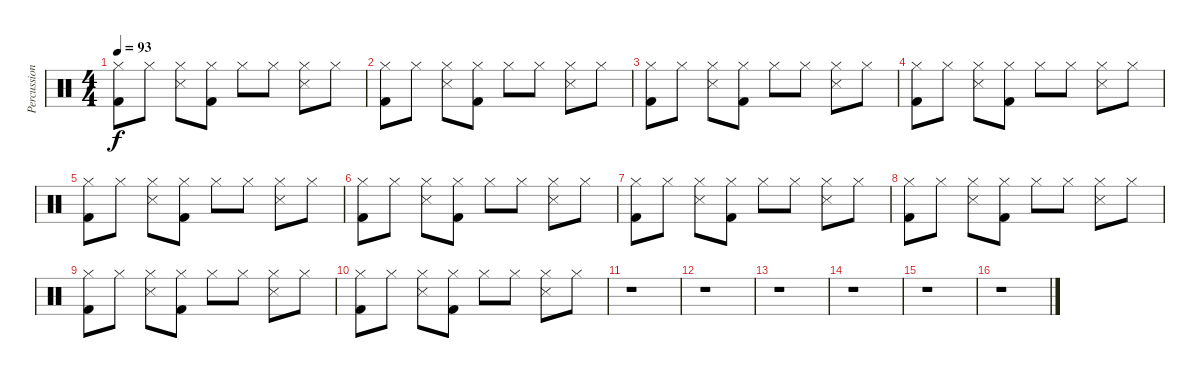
\track ("Percussion" "Percussion") {instrument percussion}
\staff {score}
\articulation defaults
\ts (4 4)
\tempo 93
\clef neutral
\ks c
("Hi-Hat (closed)" "Kick (hit) 2").8{dy f} "Hi-Hat (closed)".8 ("Hi-Hat (closed)" "Snare (side stick) 3").8 ("Hi-Hat (closed)" "Kick (hit) 2").8 "Hi-Hat (closed)".8 "Hi-Hat (closed)".8 ("Hi-Hat (closed)" "Snare (side stick) 3").8 "Hi-Hat (closed)".8 |
("Hi-Hat (closed)" "Kick (hit) 2").8 "Hi-Hat (closed)".8 ("Hi-Hat (closed)" "Snare (side stick) 3").8 ("Hi-Hat (closed)" "Kick (hit) 2").8 "Hi-Hat (closed)".8 "Hi-Hat (closed)".8 ("Hi-Hat (closed)" "Snare (side stick) 3").8 "Hi-Hat (closed)".8 |
("Hi-Hat (closed)" "Kick (hit) 2").8 "Hi-Hat (closed)".8 ("Hi-Hat (closed)" "Snare (side stick) 3").8 ("Hi-Hat (closed)" "Kick (hit) 2").8 "Hi-Hat (closed)".8 "Hi-Hat (closed)".8 ("Hi-Hat (closed)" "Snare (side stick) 3").8 "Hi-Hat (closed)".8 |
("Hi-Hat (closed)" "Kick (hit) 2").8 "Hi-Hat (closed)".8 ("Hi-Hat (closed)" "Snare (side stick) 3").8 ("Hi-Hat (closed)" "Kick (hit) 2").8 "Hi-Hat (closed)".8 "Hi-Hat (closed)".8 ("Hi-Hat (closed)" "Snare (side stick) 3").8 "Hi-Hat (closed)".8 |
("Hi-Hat (closed)" "Kick (hit) 2").8 "Hi-Hat (closed)".8 ("Hi-Hat (closed)" "Snare (side stick) 3").8 ("Hi-Hat (closed)" "Kick (hit) 2").8 "Hi-Hat (closed)".8 "Hi-Hat (closed)".8 ("Hi-Hat (closed)" "Snare (side stick) 3").8 "Hi-Hat (closed)".8 |
("Hi-Hat (closed)" "Kick (hit) 2").8 "Hi-Hat (closed)".8 ("Hi-Hat (closed)" "Snare (side stick) 3").8 ("Hi-Hat (closed)" "Kick (hit) 2").8 "Hi-Hat (closed)".8 "Hi-Hat (closed)".8 ("Hi-Hat (closed)" "Snare (side stick) 3").8 "Hi-Hat (closed)".8 |
("Hi-Hat (closed)" "Kick (hit) 2").8 "Hi-Hat (closed)".8 ("Hi-Hat (closed)" "Snare (side stick) 3").8 ("Hi-Hat (closed)" "Kick (hit) 2").8 "Hi-Hat (closed)".8 "Hi-Hat (closed)".8 ("Hi-Hat (closed)" "Snare (side stick) 3").8 "Hi-Hat (closed)".8 |
("Hi-Hat (closed)" "Kick (hit) 2").8 "Hi-Hat (closed)".8 ("Hi-Hat (closed)" "Snare (side stick) 3").8 ("Hi-Hat (closed)" "Kick (hit) 2").8 "Hi-Hat (closed)".8 "Hi-Hat (closed)".8 ("Hi-Hat (closed)" "Snare (side stick) 3").8 "Hi-Hat (closed)".8 |
("Hi-Hat (closed)" "Kick (hit) 2").8 "Hi-Hat (closed)".8 ("Hi-Hat (closed)" "Snare (side stick) 3").8 ("Hi-Hat (closed)" "Kick (hit) 2").8 "Hi-Hat (closed)".8 "Hi-Hat (closed)".8 ("Hi-Hat (closed)" "Snare (side stick) 3").8 "Hi-Hat (closed)".8 |
("Hi-Hat (closed)" "Kick (hit) 2").8 "Hi-Hat (closed)".8 ("Hi-Hat (closed)" "Snare (side stick) 3").8 ("Hi-Hat (closed)" "Kick (hit) 2").8 "Hi-Hat (closed)".8 "Hi-Hat (closed)".8 ("Hi-Hat (closed)" "Snare (side stick) 3").8 "Hi-Hat (closed)".8 |
r.1 |
r.1 |
r.1 |
r.1 |
r.1 |
r.1
